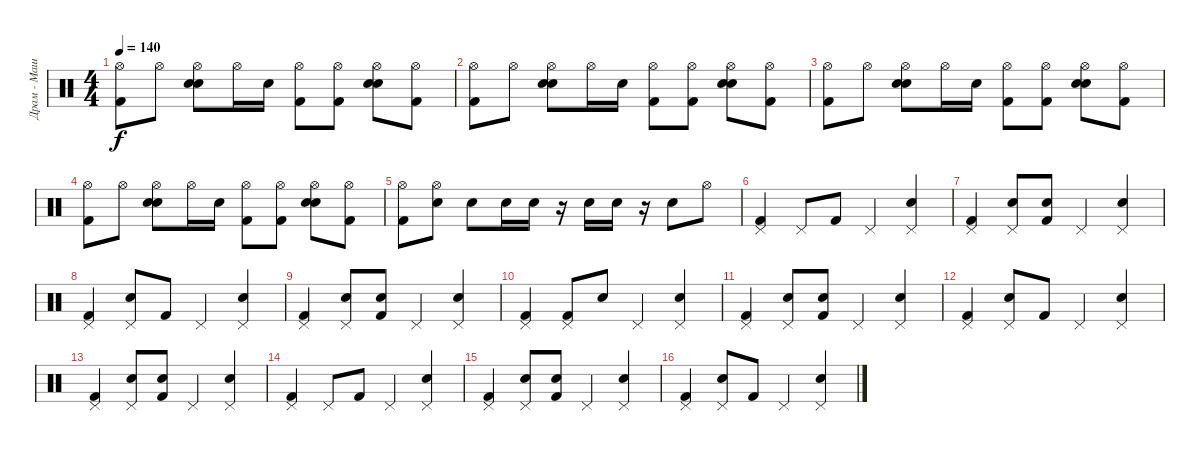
\track ("Драм - Машина" "Драм - Маш") {instrument percussion}
\staff {score}
\articulation defaults
\ts (4 4)
\tempo 140
\clef neutral
\ks c
("Kick (hit) 2" "Hi-Hat (open)").8{dy f} "Hi-Hat (open)".8 ("Hand Clap (hit)" "Snare (hit) 2" "Hi-Hat (open)").8 "Hi-Hat (open)".16 "Snare (hit) 2".16 ("Kick (hit) 2" "Hi-Hat (open)").8 ("Hi-Hat (open)" "Kick (hit) 2").8 ("Hand Clap (hit)" "Snare (hit) 2" "Hi-Hat (open)").8 ("Hi-Hat (open)" "Kick (hit) 2").8 |
("Kick (hit) 2" "Hi-Hat (open)").8 "Hi-Hat (open)".8 ("Hand Clap (hit)" "Snare (hit) 2" "Hi-Hat (open)").8 "Hi-Hat (open)".16 "Snare (hit) 2".16 ("Kick (hit) 2" "Hi-Hat (open)").8 ("Hi-Hat (open)" "Kick (hit) 2").8 ("Hand Clap (hit)" "Snare (hit) 2" "Hi-Hat (open)").8 ("Hi-Hat (open)" "Kick (hit) 2").8 |
("Kick (hit) 2" "Hi-Hat (open)").8 "Hi-Hat (open)".8 ("Hand Clap (hit)" "Snare (hit) 2" "Hi-Hat (open)").8 "Hi-Hat (open)".16 "Snare (hit) 2".16 ("Kick (hit) 2" "Hi-Hat (open)").8 ("Hi-Hat (open)" "Kick (hit) 2").8 ("Hand Clap (hit)" "Snare (hit) 2" "Hi-Hat (open)").8 ("Hi-Hat (open)" "Kick (hit) 2").8 |
("Kick (hit) 2" "Hi-Hat (open)").8 "Hi-Hat (open)".8 ("Hand Clap (hit)" "Snare (hit) 2" "Hi-Hat (open)").8 "Hi-Hat (open)".16 "Snare (hit) 2".16 ("Kick (hit) 2" "Hi-Hat (open)").8 ("Hi-Hat (open)" "Kick (hit) 2").8 ("Hand Clap (hit)" "Snare (hit) 2" "Hi-Hat (open)").8 ("Hi-Hat (open)" "Kick (hit) 2").8 |
("Kick (hit) 2" "Hi-Hat (open)").8 ("Hi-Hat (open)" "Electric Snare (hit)").8 "Electric Snare (hit)".8 "Snare (hit) 2".16 "Electric Snare (hit)".16 r.16 "Electric Snare (hit)".16 "Snare (hit) 2".16 r.16 "Electric Snare (hit)".8 "Hi-Hat (open)".8 |
("Kick (hit) 2" "Pedal Hi-Hat (hit)").4 "Pedal Hi-Hat (hit)".8 "Kick (hit) 2".8 "Pedal Hi-Hat (hit)".4 ("Electric Snare (hit)" "Pedal Hi-Hat (hit)").4 |
("Kick (hit) 2" "Pedal Hi-Hat (hit)").4 ("Electric Snare (hit)" "Pedal Hi-Hat (hit)").8 ("Kick (hit) 2" "Electric Snare (hit)").8 "Pedal Hi-Hat (hit)".4 ("Electric Snare (hit)" "Pedal Hi-Hat (hit)").4 |
("Kick (hit) 2" "Pedal Hi-Hat (hit)").4 ("Pedal Hi-Hat (hit)" "Electric Snare (hit)").8 "Kick (hit) 2".8 "Pedal Hi-Hat (hit)".4 ("Electric Snare (hit)" "Pedal Hi-Hat (hit)").4 |
("Kick (hit) 2" "Pedal Hi-Hat (hit)").4 ("Electric Snare (hit)" "Pedal Hi-Hat (hit)").8 ("Kick (hit) 2" "Electric Snare (hit)").8 "Pedal Hi-Hat (hit)".4 ("Electric Snare (hit)" "Pedal Hi-Hat (hit)").4 |
("Kick (hit) 2" "Pedal Hi-Hat (hit)").4 ("Pedal Hi-Hat (hit)" "Kick (hit) 2").8 "Electric Snare (hit)".8 "Pedal Hi-Hat (hit)".4 ("Electric Snare (hit)" "Pedal Hi-Hat (hit)").4 |
("Kick (hit) 2" "Pedal Hi-Hat (hit)").4 ("Electric Snare (hit)" "Pedal Hi-Hat (hit)").8 ("Kick (hit) 2" "Electric Snare (hit)").8 "Pedal Hi-Hat (hit)".4 ("Electric Snare (hit)" "Pedal Hi-Hat (hit)").4 |
("Kick (hit) 2" "Pedal Hi-Hat (hit)").4 ("Pedal Hi-Hat (hit)" "Electric Snare (hit)").8 "Kick (hit) 2".8 "Pedal Hi-Hat (hit)".4 ("Electric Snare (hit)" "Pedal Hi-Hat (hit)").4 |
("Kick (hit) 2" "Pedal Hi-Hat (hit)").4 ("Electric Snare (hit)" "Pedal Hi-Hat (hit)").8 ("Kick (hit) 2" "Electric Snare (hit)").8 "Pedal Hi-Hat (hit)".4 ("Electric Snare (hit)" "Pedal Hi-Hat (hit)").4 |
("Kick (hit) 2" "Pedal Hi-Hat (hit)").4 "Pedal Hi-Hat (hit)".8 "Kick (hit) 2".8 "Pedal Hi-Hat (hit)".4 ("Electric Snare (hit)" "Pedal Hi-Hat (hit)").4 |
("Kick (hit) 2" "Pedal Hi-Hat (hit)").4 ("Electric Snare (hit)" "Pedal Hi-Hat (hit)").8 ("Kick (hit) 2" "Electric Snare (hit)").8 "Pedal Hi-Hat (hit)".4 ("Electric Snare (hit)" "Pedal Hi-Hat (hit)").4 |
("Kick (hit) 2" "Pedal Hi-Hat (hit)").4 ("Pedal Hi-Hat (hit)" "Electric Snare (hit)").8 "Kick (hit) 2".8 "Pedal Hi-Hat (hit)".4 ("Electric Snare (hit)" "Pedal Hi-Hat (hit)").4
